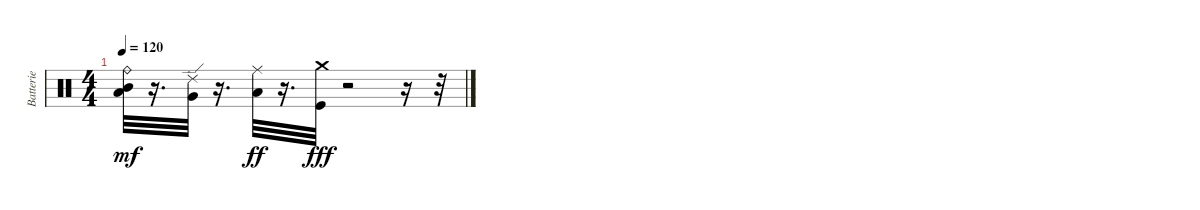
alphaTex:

\track ("Batterie" "Batterie") {instrument percussion}
\staff {score}
\articulation defaults
\ts (4 4)
\tempo 120
\clef neutral
\ks c
("Mid Tom (hit)" "Low Tom (hit)" "Ride (bell)").32{dy mf} r.16{d} ("Very Low Tom (hit)" "Ride (edge) 2").32 r.16{d} ("Ride (middle)" "Low Floor Tom (hit)").32{dy ff} r.16{d} ("Crash medium (hit)" "Kick (hit)").32{dy fff} r.2 r.16 r.32
